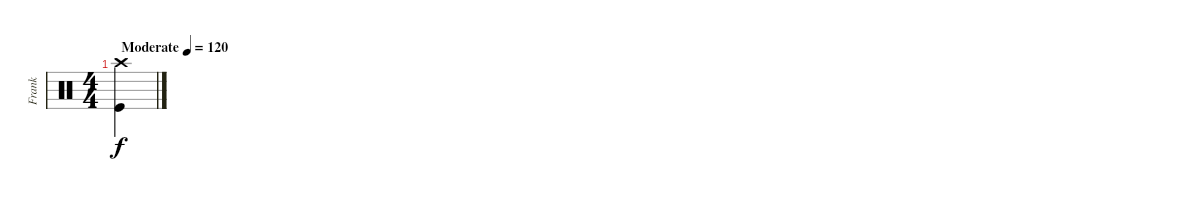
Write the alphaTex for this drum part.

\track ("Frank" "Frank") {instrument percussion}
\staff {score}
\articulation defaults
\ts (4 4)
\tempo (120 "Moderate")
\clef neutral
\ks c
("Kick (hit)" "Crash high (hit)").4{dy f}
